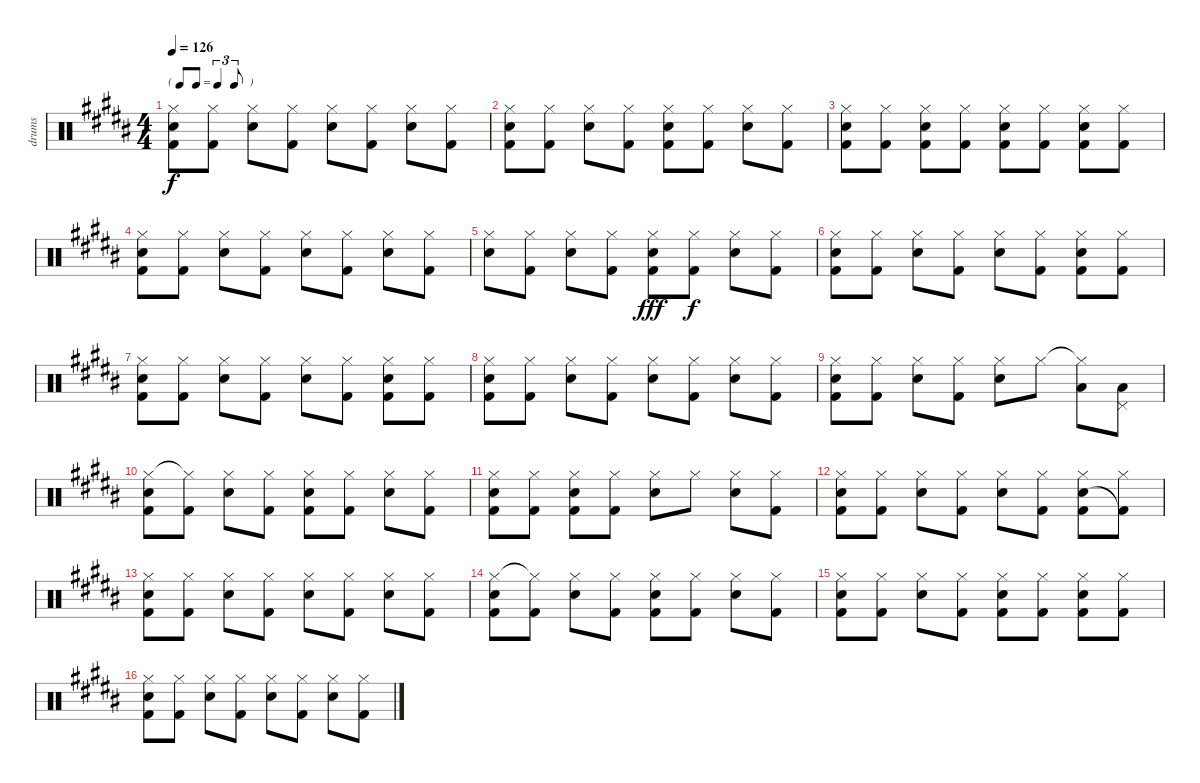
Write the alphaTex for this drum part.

\track ("drums" "drums") {instrument percussion}
\staff {score}
\articulation defaults
\ts (4 4)
\tf triplet8th
\tempo 126
\clef neutral
\ks b
("Hi-Hat (closed)" "Electric Snare (hit)" "Kick (hit) 2").8{dy f} ("Hi-Hat (closed)" "Kick (hit) 2").8 ("Hi-Hat (closed)" "Electric Snare (hit)").8 ("Hi-Hat (closed)" "Kick (hit) 2").8 ("Hi-Hat (closed)" "Electric Snare (hit)").8 ("Hi-Hat (closed)" "Kick (hit) 2").8 ("Hi-Hat (closed)" "Electric Snare (hit)").8 ("Hi-Hat (closed)" "Kick (hit) 2").8 |
("Hi-Hat (closed)" "Electric Snare (hit)" "Kick (hit) 2").8 ("Hi-Hat (closed)" "Kick (hit) 2").8 ("Hi-Hat (closed)" "Electric Snare (hit)").8 ("Hi-Hat (closed)" "Kick (hit) 2").8 ("Hi-Hat (closed)" "Electric Snare (hit)" "Kick (hit) 2").8 ("Hi-Hat (closed)" "Kick (hit) 2").8 ("Hi-Hat (closed)" "Electric Snare (hit)").8 ("Hi-Hat (closed)" "Kick (hit) 2").8 |
("Hi-Hat (closed)" "Electric Snare (hit)" "Kick (hit) 2").8 ("Hi-Hat (closed)" "Kick (hit) 2").8 ("Hi-Hat (closed)" "Electric Snare (hit)" "Kick (hit) 2").8 ("Hi-Hat (closed)" "Kick (hit) 2").8 ("Hi-Hat (closed)" "Electric Snare (hit)" "Kick (hit) 2").8 ("Hi-Hat (closed)" "Kick (hit) 2").8 ("Hi-Hat (closed)" "Electric Snare (hit)" "Kick (hit) 2").8 ("Hi-Hat (closed)" "Kick (hit) 2").8 |
("Hi-Hat (closed)" "Electric Snare (hit)" "Kick (hit) 2").8 ("Hi-Hat (closed)" "Kick (hit) 2").8 ("Hi-Hat (closed)" "Electric Snare (hit)").8 ("Hi-Hat (closed)" "Kick (hit) 2").8 ("Hi-Hat (closed)" "Electric Snare (hit)").8 ("Hi-Hat (closed)" "Kick (hit) 2").8 ("Hi-Hat (closed)" "Electric Snare (hit)").8 ("Hi-Hat (closed)" "Kick (hit) 2").8 |
("Hi-Hat (closed)" "Electric Snare (hit)").8 ("Hi-Hat (closed)" "Kick (hit) 2").8 ("Hi-Hat (closed)" "Electric Snare (hit)").8 ("Hi-Hat (closed)" "Kick (hit) 2").8 ("Hi-Hat (closed)" "Electric Snare (hit)" "Kick (hit) 2").8{dy fff} ("Hi-Hat (closed)" "Kick (hit) 2").8{dy f} ("Hi-Hat (closed)" "Electric Snare (hit)").8 ("Hi-Hat (closed)" "Kick (hit) 2").8 |
("Hi-Hat (closed)" "Electric Snare (hit)" "Kick (hit) 2").8 ("Hi-Hat (closed)" "Kick (hit) 2").8 ("Hi-Hat (closed)" "Electric Snare (hit)").8 ("Hi-Hat (closed)" "Kick (hit) 2").8 ("Hi-Hat (closed)" "Electric Snare (hit)").8 ("Hi-Hat (closed)" "Kick (hit) 2").8 ("Hi-Hat (closed)" "Electric Snare (hit)" "Kick (hit) 2").8 ("Hi-Hat (closed)" "Kick (hit) 2").8 |
("Hi-Hat (closed)" "Electric Snare (hit)" "Kick (hit) 2").8 ("Hi-Hat (closed)" "Kick (hit) 2").8 ("Hi-Hat (closed)" "Electric Snare (hit)").8 ("Hi-Hat (closed)" "Kick (hit) 2").8 ("Hi-Hat (closed)" "Electric Snare (hit)").8 ("Hi-Hat (closed)" "Kick (hit) 2").8 ("Hi-Hat (closed)" "Electric Snare (hit)" "Kick (hit) 2").8 ("Hi-Hat (closed)" "Kick (hit) 2").8 |
("Hi-Hat (closed)" "Electric Snare (hit)" "Kick (hit) 2").8 ("Hi-Hat (closed)" "Kick (hit) 2").8 ("Hi-Hat (closed)" "Electric Snare (hit)").8 ("Hi-Hat (closed)" "Kick (hit) 2").8 ("Hi-Hat (closed)" "Electric Snare (hit)").8 ("Hi-Hat (closed)" "Kick (hit) 2").8 ("Hi-Hat (closed)" "Electric Snare (hit)").8 ("Hi-Hat (closed)" "Kick (hit) 2").8 |
("Hi-Hat (closed)" "Electric Snare (hit)" "Kick (hit) 2").8 ("Hi-Hat (closed)" "Kick (hit) 2").8 ("Hi-Hat (closed)" "Electric Snare (hit)").8 ("Hi-Hat (closed)" "Kick (hit) 2").8 ("Hi-Hat (closed)" "Electric Snare (hit)").8 "Hi-Hat (closed)".8 ("Hi-Hat (closed)"{t} "Low Tom (hit)").8 ("Low Tom (hit)" "Pedal Hi-Hat (hit)").8 |
("Hi-Hat (closed)" "Electric Snare (hit)" "Kick (hit) 2").8{volume 10} ("Hi-Hat (closed)"{t} "Kick (hit) 2").8 ("Hi-Hat (closed)" "Electric Snare (hit)").8 ("Hi-Hat (closed)" "Kick (hit) 2").8 ("Hi-Hat (closed)" "Electric Snare (hit)" "Kick (hit) 2").8 ("Hi-Hat (closed)" "Kick (hit) 2").8 ("Hi-Hat (closed)" "Electric Snare (hit)").8 ("Hi-Hat (closed)" "Kick (hit) 2").8 |
("Hi-Hat (closed)" "Electric Snare (hit)" "Kick (hit) 2").8 ("Hi-Hat (closed)" "Kick (hit) 2").8 ("Hi-Hat (closed)" "Electric Snare (hit)" "Kick (hit) 2").8 ("Hi-Hat (closed)" "Kick (hit) 2").8 ("Hi-Hat (closed)" "Electric Snare (hit)").8 "Hi-Hat (closed)".8 ("Hi-Hat (closed)" "Electric Snare (hit)").8 ("Hi-Hat (closed)" "Kick (hit) 2").8 |
("Hi-Hat (closed)" "Electric Snare (hit)" "Kick (hit) 2").8 ("Hi-Hat (closed)" "Kick (hit) 2").8 ("Hi-Hat (closed)" "Electric Snare (hit)").8 ("Hi-Hat (closed)" "Kick (hit) 2").8 ("Hi-Hat (closed)" "Electric Snare (hit)").8 ("Hi-Hat (closed)" "Kick (hit) 2").8 ("Hi-Hat (closed)" "Electric Snare (hit)" "Kick (hit) 2").8 ("Hi-Hat (closed)" "Kick (hit) 2"{t}).8 |
("Hi-Hat (closed)" "Electric Snare (hit)" "Kick (hit) 2").8 ("Hi-Hat (closed)" "Kick (hit) 2").8 ("Hi-Hat (closed)" "Electric Snare (hit)").8 ("Hi-Hat (closed)" "Kick (hit) 2").8 ("Hi-Hat (closed)" "Electric Snare (hit)").8 ("Hi-Hat (closed)" "Kick (hit) 2").8 ("Hi-Hat (closed)" "Electric Snare (hit)").8 ("Hi-Hat (closed)" "Kick (hit) 2").8 |
("Hi-Hat (closed)" "Electric Snare (hit)" "Kick (hit) 2").8 ("Hi-Hat (closed)"{t} "Kick (hit) 2").8 ("Hi-Hat (closed)" "Electric Snare (hit)").8 ("Hi-Hat (closed)" "Kick (hit) 2").8 ("Hi-Hat (closed)" "Electric Snare (hit)" "Kick (hit) 2").8 ("Hi-Hat (closed)" "Kick (hit) 2").8 ("Hi-Hat (closed)" "Electric Snare (hit)").8 ("Hi-Hat (closed)" "Kick (hit) 2").8 |
("Hi-Hat (closed)" "Electric Snare (hit)" "Kick (hit) 2").8 ("Hi-Hat (closed)" "Kick (hit) 2").8 ("Hi-Hat (closed)" "Electric Snare (hit)").8 ("Hi-Hat (closed)" "Kick (hit) 2").8 ("Hi-Hat (closed)" "Electric Snare (hit)" "Kick (hit) 2").8 ("Hi-Hat (closed)" "Kick (hit) 2").8 ("Hi-Hat (closed)" "Electric Snare (hit)" "Kick (hit) 2").8 ("Hi-Hat (closed)" "Kick (hit) 2").8 |
("Hi-Hat (closed)" "Electric Snare (hit)" "Kick (hit) 2").8 ("Hi-Hat (closed)" "Kick (hit) 2").8 ("Hi-Hat (closed)" "Electric Snare (hit)").8 ("Hi-Hat (closed)" "Kick (hit) 2").8 ("Hi-Hat (closed)" "Electric Snare (hit)").8 ("Hi-Hat (closed)" "Kick (hit) 2").8 ("Hi-Hat (closed)" "Electric Snare (hit)").8 ("Hi-Hat (closed)" "Kick (hit) 2").8
